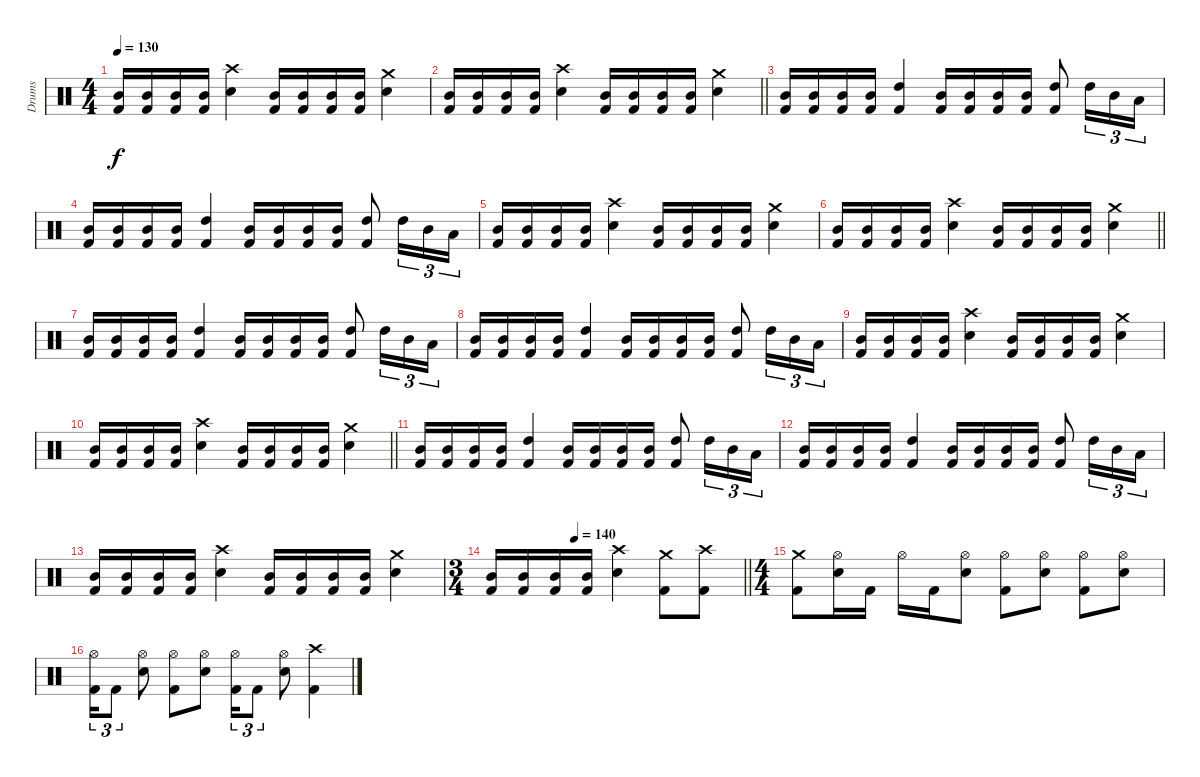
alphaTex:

\track ("Drums" "Drums") {instrument percussion}
\staff {score}
\articulation defaults
\ts (4 4)
\tempo 130
\clef neutral
\ks c
("Mid Tom (hit)" "Kick (hit) 2").16{dy f} ("Mid Tom (hit)" "Kick (hit) 2").16 ("Mid Tom (hit)" "Kick (hit) 2").16 ("Mid Tom (hit)" "Kick (hit) 2").16 ("Snare (hit) 2" "Crash high (hit)").4 ("Mid Tom (hit)" "Kick (hit) 2").16 ("Mid Tom (hit)" "Kick (hit) 2").16 ("Mid Tom (hit)" "Kick (hit) 2").16 ("Mid Tom (hit)" "Kick (hit) 2").16 ("Snare (hit) 2" "Crash medium (hit)").4 |
\barLineRight lightlight
("Mid Tom (hit)" "Kick (hit) 2").16 ("Mid Tom (hit)" "Kick (hit) 2").16 ("Mid Tom (hit)" "Kick (hit) 2").16 ("Mid Tom (hit)" "Kick (hit) 2").16 ("Snare (hit) 2" "Crash high (hit)").4 ("Mid Tom (hit)" "Kick (hit) 2").16 ("Mid Tom (hit)" "Kick (hit) 2").16 ("Mid Tom (hit)" "Kick (hit) 2").16 ("Mid Tom (hit)" "Kick (hit) 2").16 ("Snare (hit) 2" "Crash medium (hit)").4 |
("Mid Tom (hit)" "Kick (hit) 2").16 ("Mid Tom (hit)" "Kick (hit) 2").16 ("Mid Tom (hit)" "Kick (hit) 2").16 ("Mid Tom (hit)" "Kick (hit) 2").16 ("High Tom (hit)" "Kick (hit) 2").4 ("Mid Tom (hit)" "Kick (hit) 2").16 ("Mid Tom (hit)" "Kick (hit) 2").16 ("Mid Tom (hit)" "Kick (hit) 2").16 ("Mid Tom (hit)" "Kick (hit) 2").16 ("High Tom (hit)" "Kick (hit) 2").8 "High Tom (hit)".16{tu (3 2)} "Mid Tom (hit)".16{tu (3 2)} "Low Tom (hit)".16{tu (3 2)} |
("Mid Tom (hit)" "Kick (hit) 2").16 ("Mid Tom (hit)" "Kick (hit) 2").16 ("Mid Tom (hit)" "Kick (hit) 2").16 ("Mid Tom (hit)" "Kick (hit) 2").16 ("High Tom (hit)" "Kick (hit) 2").4 ("Mid Tom (hit)" "Kick (hit) 2").16 ("Mid Tom (hit)" "Kick (hit) 2").16 ("Mid Tom (hit)" "Kick (hit) 2").16 ("Mid Tom (hit)" "Kick (hit) 2").16 ("High Tom (hit)" "Kick (hit) 2").8 "High Tom (hit)".16{tu (3 2)} "Mid Tom (hit)".16{tu (3 2)} "Low Tom (hit)".16{tu (3 2)} |
("Mid Tom (hit)" "Kick (hit) 2").16 ("Mid Tom (hit)" "Kick (hit) 2").16 ("Mid Tom (hit)" "Kick (hit) 2").16 ("Mid Tom (hit)" "Kick (hit) 2").16 ("Snare (hit) 2" "Crash high (hit)").4 ("Mid Tom (hit)" "Kick (hit) 2").16 ("Mid Tom (hit)" "Kick (hit) 2").16 ("Mid Tom (hit)" "Kick (hit) 2").16 ("Mid Tom (hit)" "Kick (hit) 2").16 ("Snare (hit) 2" "Crash medium (hit)").4 |
\barLineRight lightlight
("Mid Tom (hit)" "Kick (hit) 2").16 ("Mid Tom (hit)" "Kick (hit) 2").16 ("Mid Tom (hit)" "Kick (hit) 2").16 ("Mid Tom (hit)" "Kick (hit) 2").16 ("Snare (hit) 2" "Crash high (hit)").4 ("Mid Tom (hit)" "Kick (hit) 2").16 ("Mid Tom (hit)" "Kick (hit) 2").16 ("Mid Tom (hit)" "Kick (hit) 2").16 ("Mid Tom (hit)" "Kick (hit) 2").16 ("Snare (hit) 2" "Crash medium (hit)").4 |
("Mid Tom (hit)" "Kick (hit) 2").16 ("Mid Tom (hit)" "Kick (hit) 2").16 ("Mid Tom (hit)" "Kick (hit) 2").16 ("Mid Tom (hit)" "Kick (hit) 2").16 ("High Tom (hit)" "Kick (hit) 2").4 ("Mid Tom (hit)" "Kick (hit) 2").16 ("Mid Tom (hit)" "Kick (hit) 2").16 ("Mid Tom (hit)" "Kick (hit) 2").16 ("Mid Tom (hit)" "Kick (hit) 2").16 ("High Tom (hit)" "Kick (hit) 2").8 "High Tom (hit)".16{tu (3 2)} "Mid Tom (hit)".16{tu (3 2)} "Low Tom (hit)".16{tu (3 2)} |
("Mid Tom (hit)" "Kick (hit) 2").16 ("Mid Tom (hit)" "Kick (hit) 2").16 ("Mid Tom (hit)" "Kick (hit) 2").16 ("Mid Tom (hit)" "Kick (hit) 2").16 ("High Tom (hit)" "Kick (hit) 2").4 ("Mid Tom (hit)" "Kick (hit) 2").16 ("Mid Tom (hit)" "Kick (hit) 2").16 ("Mid Tom (hit)" "Kick (hit) 2").16 ("Mid Tom (hit)" "Kick (hit) 2").16 ("High Tom (hit)" "Kick (hit) 2").8 "High Tom (hit)".16{tu (3 2)} "Mid Tom (hit)".16{tu (3 2)} "Low Tom (hit)".16{tu (3 2)} |
("Mid Tom (hit)" "Kick (hit) 2").16 ("Mid Tom (hit)" "Kick (hit) 2").16 ("Mid Tom (hit)" "Kick (hit) 2").16 ("Mid Tom (hit)" "Kick (hit) 2").16 ("Snare (hit) 2" "Crash high (hit)").4 ("Mid Tom (hit)" "Kick (hit) 2").16 ("Mid Tom (hit)" "Kick (hit) 2").16 ("Mid Tom (hit)" "Kick (hit) 2").16 ("Mid Tom (hit)" "Kick (hit) 2").16 ("Snare (hit) 2" "Crash medium (hit)").4 |
\barLineRight lightlight
("Mid Tom (hit)" "Kick (hit) 2").16 ("Mid Tom (hit)" "Kick (hit) 2").16 ("Mid Tom (hit)" "Kick (hit) 2").16 ("Mid Tom (hit)" "Kick (hit) 2").16 ("Snare (hit) 2" "Crash high (hit)").4 ("Mid Tom (hit)" "Kick (hit) 2").16 ("Mid Tom (hit)" "Kick (hit) 2").16 ("Mid Tom (hit)" "Kick (hit) 2").16 ("Mid Tom (hit)" "Kick (hit) 2").16 ("Snare (hit) 2" "Crash medium (hit)").4 |
("Mid Tom (hit)" "Kick (hit) 2").16 ("Mid Tom (hit)" "Kick (hit) 2").16 ("Mid Tom (hit)" "Kick (hit) 2").16 ("Mid Tom (hit)" "Kick (hit) 2").16 ("High Tom (hit)" "Kick (hit) 2").4 ("Mid Tom (hit)" "Kick (hit) 2").16 ("Mid Tom (hit)" "Kick (hit) 2").16 ("Mid Tom (hit)" "Kick (hit) 2").16 ("Mid Tom (hit)" "Kick (hit) 2").16 ("High Tom (hit)" "Kick (hit) 2").8 "High Tom (hit)".16{tu (3 2)} "Mid Tom (hit)".16{tu (3 2)} "Low Tom (hit)".16{tu (3 2)} |
("Mid Tom (hit)" "Kick (hit) 2").16 ("Mid Tom (hit)" "Kick (hit) 2").16 ("Mid Tom (hit)" "Kick (hit) 2").16 ("Mid Tom (hit)" "Kick (hit) 2").16 ("High Tom (hit)" "Kick (hit) 2").4 ("Mid Tom (hit)" "Kick (hit) 2").16 ("Mid Tom (hit)" "Kick (hit) 2").16 ("Mid Tom (hit)" "Kick (hit) 2").16 ("Mid Tom (hit)" "Kick (hit) 2").16 ("High Tom (hit)" "Kick (hit) 2").8 "High Tom (hit)".16{tu (3 2)} "Mid Tom (hit)".16{tu (3 2)} "Low Tom (hit)".16{tu (3 2)} |
("Mid Tom (hit)" "Kick (hit) 2").16 ("Mid Tom (hit)" "Kick (hit) 2").16 ("Mid Tom (hit)" "Kick (hit) 2").16 ("Mid Tom (hit)" "Kick (hit) 2").16 ("Snare (hit) 2" "Crash high (hit)").4 ("Mid Tom (hit)" "Kick (hit) 2").16 ("Mid Tom (hit)" "Kick (hit) 2").16 ("Mid Tom (hit)" "Kick (hit) 2").16 ("Mid Tom (hit)" "Kick (hit) 2").16 ("Snare (hit) 2" "Crash medium (hit)").4 |
\ts (3 4)
\tempo (140 0.3333333333333333)
\barLineRight lightlight
("Mid Tom (hit)" "Kick (hit) 2").16 ("Mid Tom (hit)" "Kick (hit) 2").16 ("Mid Tom (hit)" "Kick (hit) 2").16 ("Mid Tom (hit)" "Kick (hit) 2").16 ("Snare (hit) 2" "Crash high (hit)").4 ("Crash medium (hit)" "Kick (hit) 2").8 ("Crash high (hit)" "Kick (hit) 2").8 |
\ts (4 4)
("Crash medium (hit)" "Kick (hit) 2").8 ("Hi-Hat (open)" "Snare (hit) 2").16 "Kick (hit) 2".16 "Hi-Hat (open)".16 "Kick (hit) 2".16 ("Hi-Hat (open)" "Snare (hit) 2").8 ("Hi-Hat (open)" "Kick (hit) 2").8 ("Hi-Hat (open)" "Snare (hit) 2").8 ("Hi-Hat (open)" "Kick (hit) 2").8 ("Hi-Hat (open)" "Snare (hit) 2").8 |
("Hi-Hat (open)" "Kick (hit) 2").16{tu (3 2)} "Kick (hit) 2".8{tu (3 2)} ("Hi-Hat (open)" "Snare (hit) 2").8 ("Hi-Hat (open)" "Kick (hit) 2").8 ("Hi-Hat (open)" "Snare (hit) 2").8 ("Hi-Hat (open)" "Kick (hit) 2").16{tu (3 2)} "Kick (hit) 2".8{tu (3 2)} ("Hi-Hat (open)" "Snare (hit) 2").8 ("Crash high (hit)" "Kick (hit) 2").4
